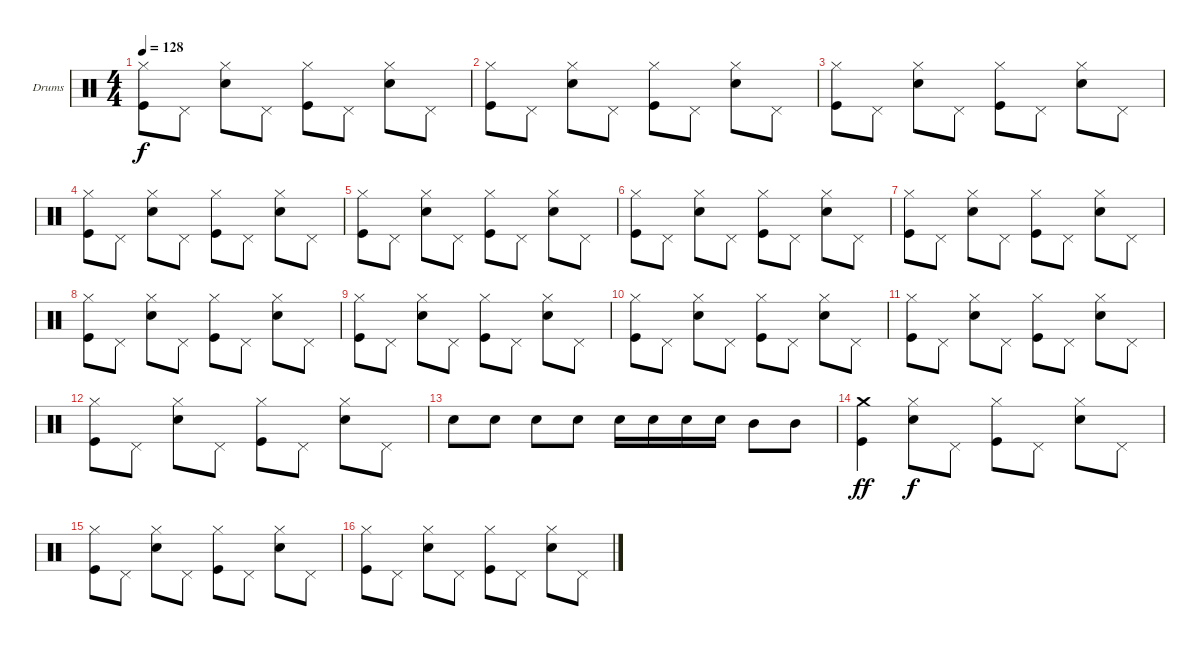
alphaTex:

\bracketExtendMode groupsimilarinstruments
\firstSystemTrackNameOrientation horizontal
\otherSystemsTrackNameOrientation horizontal
\track ("Drumkit" "Drums") {instrument percussion}
\staff {score}
\articulation defaults
\ts (4 4)
\tempo 128
\clef neutral
\ks c
("Hi-Hat (closed)" "Kick (hit)").8{dy f} "Pedal Hi-Hat (hit)".8 ("Hi-Hat (closed)" "Snare (hit) 2").8 "Pedal Hi-Hat (hit)".8 ("Hi-Hat (closed)" "Kick (hit)").8 "Pedal Hi-Hat (hit)".8 ("Hi-Hat (closed)" "Snare (hit) 2").8 "Pedal Hi-Hat (hit)".8 |
("Hi-Hat (closed)" "Kick (hit)").8 "Pedal Hi-Hat (hit)".8 ("Hi-Hat (closed)" "Snare (hit) 2").8 "Pedal Hi-Hat (hit)".8 ("Hi-Hat (closed)" "Kick (hit)").8 "Pedal Hi-Hat (hit)".8 ("Hi-Hat (closed)" "Snare (hit) 2").8 "Pedal Hi-Hat (hit)".8 |
("Hi-Hat (closed)" "Kick (hit)").8 "Pedal Hi-Hat (hit)".8 ("Hi-Hat (closed)" "Snare (hit) 2").8 "Pedal Hi-Hat (hit)".8 ("Hi-Hat (closed)" "Kick (hit)").8 "Pedal Hi-Hat (hit)".8 ("Hi-Hat (closed)" "Snare (hit) 2").8 "Pedal Hi-Hat (hit)".8 |
("Hi-Hat (closed)" "Kick (hit)").8 "Pedal Hi-Hat (hit)".8 ("Hi-Hat (closed)" "Snare (hit) 2").8 "Pedal Hi-Hat (hit)".8 ("Hi-Hat (closed)" "Kick (hit)").8 "Pedal Hi-Hat (hit)".8 ("Hi-Hat (closed)" "Snare (hit) 2").8 "Pedal Hi-Hat (hit)".8 |
("Hi-Hat (closed)" "Kick (hit)").8 "Pedal Hi-Hat (hit)".8 ("Hi-Hat (closed)" "Snare (hit) 2").8 "Pedal Hi-Hat (hit)".8 ("Hi-Hat (closed)" "Kick (hit)").8 "Pedal Hi-Hat (hit)".8 ("Hi-Hat (closed)" "Snare (hit) 2").8 "Pedal Hi-Hat (hit)".8 |
("Hi-Hat (closed)" "Kick (hit)").8 "Pedal Hi-Hat (hit)".8 ("Hi-Hat (closed)" "Snare (hit) 2").8 "Pedal Hi-Hat (hit)".8 ("Hi-Hat (closed)" "Kick (hit)").8 "Pedal Hi-Hat (hit)".8 ("Hi-Hat (closed)" "Snare (hit) 2").8 "Pedal Hi-Hat (hit)".8 |
("Hi-Hat (closed)" "Kick (hit)").8 "Pedal Hi-Hat (hit)".8 ("Hi-Hat (closed)" "Snare (hit) 2").8 "Pedal Hi-Hat (hit)".8 ("Hi-Hat (closed)" "Kick (hit)").8 "Pedal Hi-Hat (hit)".8 ("Hi-Hat (closed)" "Snare (hit) 2").8 "Pedal Hi-Hat (hit)".8 |
("Hi-Hat (closed)" "Kick (hit)").8 "Pedal Hi-Hat (hit)".8 ("Hi-Hat (closed)" "Snare (hit) 2").8 "Pedal Hi-Hat (hit)".8 ("Hi-Hat (closed)" "Kick (hit)").8 "Pedal Hi-Hat (hit)".8 ("Hi-Hat (closed)" "Snare (hit) 2").8 "Pedal Hi-Hat (hit)".8 |
("Hi-Hat (closed)" "Kick (hit)").8 "Pedal Hi-Hat (hit)".8 ("Hi-Hat (closed)" "Snare (hit) 2").8 "Pedal Hi-Hat (hit)".8 ("Hi-Hat (closed)" "Kick (hit)").8 "Pedal Hi-Hat (hit)".8 ("Hi-Hat (closed)" "Snare (hit) 2").8 "Pedal Hi-Hat (hit)".8 |
("Hi-Hat (closed)" "Kick (hit)").8 "Pedal Hi-Hat (hit)".8 ("Hi-Hat (closed)" "Snare (hit) 2").8 "Pedal Hi-Hat (hit)".8 ("Hi-Hat (closed)" "Kick (hit)").8 "Pedal Hi-Hat (hit)".8 ("Hi-Hat (closed)" "Snare (hit) 2").8 "Pedal Hi-Hat (hit)".8 |
("Hi-Hat (closed)" "Kick (hit)").8 "Pedal Hi-Hat (hit)".8 ("Hi-Hat (closed)" "Snare (hit) 2").8 "Pedal Hi-Hat (hit)".8 ("Hi-Hat (closed)" "Kick (hit)").8 "Pedal Hi-Hat (hit)".8 ("Hi-Hat (closed)" "Snare (hit) 2").8 "Pedal Hi-Hat (hit)".8 |
("Hi-Hat (closed)" "Kick (hit)").8 "Pedal Hi-Hat (hit)".8 ("Hi-Hat (closed)" "Snare (hit) 2").8 "Pedal Hi-Hat (hit)".8 ("Hi-Hat (closed)" "Kick (hit)").8 "Pedal Hi-Hat (hit)".8 ("Hi-Hat (closed)" "Snare (hit) 2").8 "Pedal Hi-Hat (hit)".8 |
"Snare (hit) 2".8 "Snare (hit) 2".8 "Snare (hit) 2".8 "Snare (hit) 2".8 "Snare (hit) 2".16 "Snare (hit) 2".16 "Snare (hit) 2".16 "Snare (hit) 2".16 "Mid Tom (hit)".8 "Mid Tom (hit)".8 |
("Crash medium (hit)" "Kick (hit)").4{dy ff} ("Hi-Hat (closed)" "Snare (hit) 2").8{dy f} "Pedal Hi-Hat (hit)".8 ("Hi-Hat (closed)" "Kick (hit)").8 "Pedal Hi-Hat (hit)".8 ("Hi-Hat (closed)" "Snare (hit) 2").8 "Pedal Hi-Hat (hit)".8 |
("Hi-Hat (closed)" "Kick (hit)").8 "Pedal Hi-Hat (hit)".8 ("Hi-Hat (closed)" "Snare (hit) 2").8 "Pedal Hi-Hat (hit)".8 ("Hi-Hat (closed)" "Kick (hit)").8 "Pedal Hi-Hat (hit)".8 ("Hi-Hat (closed)" "Snare (hit) 2").8 "Pedal Hi-Hat (hit)".8 |
("Hi-Hat (closed)" "Kick (hit)").8 "Pedal Hi-Hat (hit)".8 ("Hi-Hat (closed)" "Snare (hit) 2").8 "Pedal Hi-Hat (hit)".8 ("Hi-Hat (closed)" "Kick (hit)").8 "Pedal Hi-Hat (hit)".8 ("Hi-Hat (closed)" "Snare (hit) 2").8 "Pedal Hi-Hat (hit)".8
